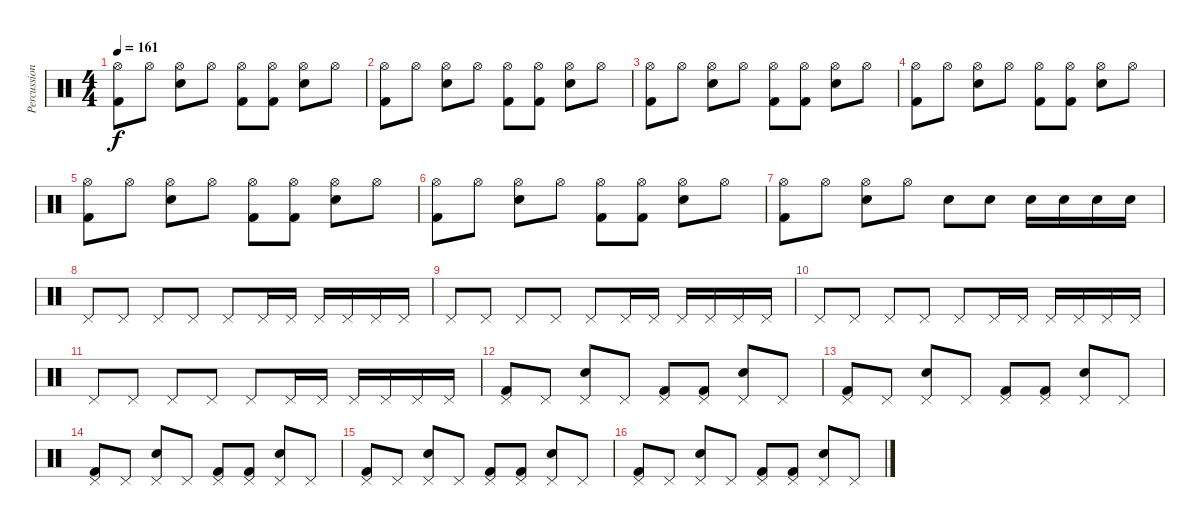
\track ("Percussion" "Percussion") {instrument percussion}
\staff {score}
\articulation defaults
\ts (4 4)
\tempo 161
\clef neutral
\ks c
("Hi-Hat (open)" "Kick (hit) 2").8{dy f} "Hi-Hat (open)".8 ("Hi-Hat (open)" "Snare (hit) 2").8 "Hi-Hat (open)".8 ("Hi-Hat (open)" "Kick (hit) 2").8 ("Hi-Hat (open)" "Kick (hit) 2").8 ("Hi-Hat (open)" "Snare (hit) 2").8 "Hi-Hat (open)".8 |
("Hi-Hat (open)" "Kick (hit) 2").8 "Hi-Hat (open)".8 ("Hi-Hat (open)" "Snare (hit) 2").8 "Hi-Hat (open)".8 ("Hi-Hat (open)" "Kick (hit) 2").8 ("Hi-Hat (open)" "Kick (hit) 2").8 ("Hi-Hat (open)" "Snare (hit) 2").8 "Hi-Hat (open)".8 |
("Hi-Hat (open)" "Kick (hit) 2").8 "Hi-Hat (open)".8 ("Hi-Hat (open)" "Snare (hit) 2").8 "Hi-Hat (open)".8 ("Hi-Hat (open)" "Kick (hit) 2").8 ("Hi-Hat (open)" "Kick (hit) 2").8 ("Hi-Hat (open)" "Snare (hit) 2").8 "Hi-Hat (open)".8 |
("Hi-Hat (open)" "Kick (hit) 2").8 "Hi-Hat (open)".8 ("Hi-Hat (open)" "Snare (hit) 2").8 "Hi-Hat (open)".8 ("Hi-Hat (open)" "Kick (hit) 2").8 ("Hi-Hat (open)" "Kick (hit) 2").8 ("Hi-Hat (open)" "Snare (hit) 2").8 "Hi-Hat (open)".8 |
("Hi-Hat (open)" "Kick (hit) 2").8 "Hi-Hat (open)".8 ("Hi-Hat (open)" "Snare (hit) 2").8 "Hi-Hat (open)".8 ("Hi-Hat (open)" "Kick (hit) 2").8 ("Hi-Hat (open)" "Kick (hit) 2").8 ("Hi-Hat (open)" "Snare (hit) 2").8 "Hi-Hat (open)".8 |
("Hi-Hat (open)" "Kick (hit) 2").8 "Hi-Hat (open)".8 ("Hi-Hat (open)" "Snare (hit) 2").8 "Hi-Hat (open)".8 ("Hi-Hat (open)" "Kick (hit) 2").8 ("Hi-Hat (open)" "Kick (hit) 2").8 ("Hi-Hat (open)" "Snare (hit) 2").8 "Hi-Hat (open)".8 |
("Hi-Hat (open)" "Kick (hit) 2").8 "Hi-Hat (open)".8 ("Hi-Hat (open)" "Snare (hit) 2").8 "Hi-Hat (open)".8 "Snare (hit) 2".8 "Snare (hit) 2".8 "Snare (hit) 2".16 "Snare (hit) 2".16 "Snare (hit) 2".16 "Snare (hit) 2".16 |
"Pedal Hi-Hat (hit)".8 "Pedal Hi-Hat (hit)".8 "Pedal Hi-Hat (hit)".8 "Pedal Hi-Hat (hit)".8 "Pedal Hi-Hat (hit)".8 "Pedal Hi-Hat (hit)".16 "Pedal Hi-Hat (hit)".16 "Pedal Hi-Hat (hit)".16 "Pedal Hi-Hat (hit)".16 "Pedal Hi-Hat (hit)".16 "Pedal Hi-Hat (hit)".16 |
"Pedal Hi-Hat (hit)".8 "Pedal Hi-Hat (hit)".8 "Pedal Hi-Hat (hit)".8 "Pedal Hi-Hat (hit)".8 "Pedal Hi-Hat (hit)".8 "Pedal Hi-Hat (hit)".16 "Pedal Hi-Hat (hit)".16 "Pedal Hi-Hat (hit)".16 "Pedal Hi-Hat (hit)".16 "Pedal Hi-Hat (hit)".16 "Pedal Hi-Hat (hit)".16 |
"Pedal Hi-Hat (hit)".8 "Pedal Hi-Hat (hit)".8 "Pedal Hi-Hat (hit)".8 "Pedal Hi-Hat (hit)".8 "Pedal Hi-Hat (hit)".8 "Pedal Hi-Hat (hit)".16 "Pedal Hi-Hat (hit)".16 "Pedal Hi-Hat (hit)".16 "Pedal Hi-Hat (hit)".16 "Pedal Hi-Hat (hit)".16 "Pedal Hi-Hat (hit)".16 |
"Pedal Hi-Hat (hit)".8 "Pedal Hi-Hat (hit)".8 "Pedal Hi-Hat (hit)".8 "Pedal Hi-Hat (hit)".8 "Pedal Hi-Hat (hit)".8 "Pedal Hi-Hat (hit)".16 "Pedal Hi-Hat (hit)".16 "Pedal Hi-Hat (hit)".16 "Pedal Hi-Hat (hit)".16 "Pedal Hi-Hat (hit)".16 "Pedal Hi-Hat (hit)".16 |
("Pedal Hi-Hat (hit)" "Kick (hit) 2").8 "Pedal Hi-Hat (hit)".8 ("Pedal Hi-Hat (hit)" "Snare (hit) 2").8 "Pedal Hi-Hat (hit)".8 ("Pedal Hi-Hat (hit)" "Kick (hit) 2").8 ("Pedal Hi-Hat (hit)" "Kick (hit) 2").8 ("Pedal Hi-Hat (hit)" "Snare (hit) 2").8 "Pedal Hi-Hat (hit)".8 |
("Pedal Hi-Hat (hit)" "Kick (hit) 2").8 "Pedal Hi-Hat (hit)".8 ("Pedal Hi-Hat (hit)" "Snare (hit) 2").8 "Pedal Hi-Hat (hit)".8 ("Pedal Hi-Hat (hit)" "Kick (hit) 2").8 ("Pedal Hi-Hat (hit)" "Kick (hit) 2").8 ("Pedal Hi-Hat (hit)" "Snare (hit) 2").8 "Pedal Hi-Hat (hit)".8 |
("Pedal Hi-Hat (hit)" "Kick (hit) 2").8 "Pedal Hi-Hat (hit)".8 ("Pedal Hi-Hat (hit)" "Snare (hit) 2").8 "Pedal Hi-Hat (hit)".8 ("Pedal Hi-Hat (hit)" "Kick (hit) 2").8 ("Pedal Hi-Hat (hit)" "Kick (hit) 2").8 ("Pedal Hi-Hat (hit)" "Snare (hit) 2").8 "Pedal Hi-Hat (hit)".8 |
("Pedal Hi-Hat (hit)" "Kick (hit) 2").8 "Pedal Hi-Hat (hit)".8 ("Pedal Hi-Hat (hit)" "Snare (hit) 2").8 "Pedal Hi-Hat (hit)".8 ("Pedal Hi-Hat (hit)" "Kick (hit) 2").8 ("Pedal Hi-Hat (hit)" "Kick (hit) 2").8 ("Pedal Hi-Hat (hit)" "Snare (hit) 2").8 "Pedal Hi-Hat (hit)".8 |
("Pedal Hi-Hat (hit)" "Kick (hit) 2").8 "Pedal Hi-Hat (hit)".8 ("Pedal Hi-Hat (hit)" "Snare (hit) 2").8 "Pedal Hi-Hat (hit)".8 ("Pedal Hi-Hat (hit)" "Kick (hit) 2").8 ("Pedal Hi-Hat (hit)" "Kick (hit) 2").8 ("Pedal Hi-Hat (hit)" "Snare (hit) 2").8 "Pedal Hi-Hat (hit)".8
